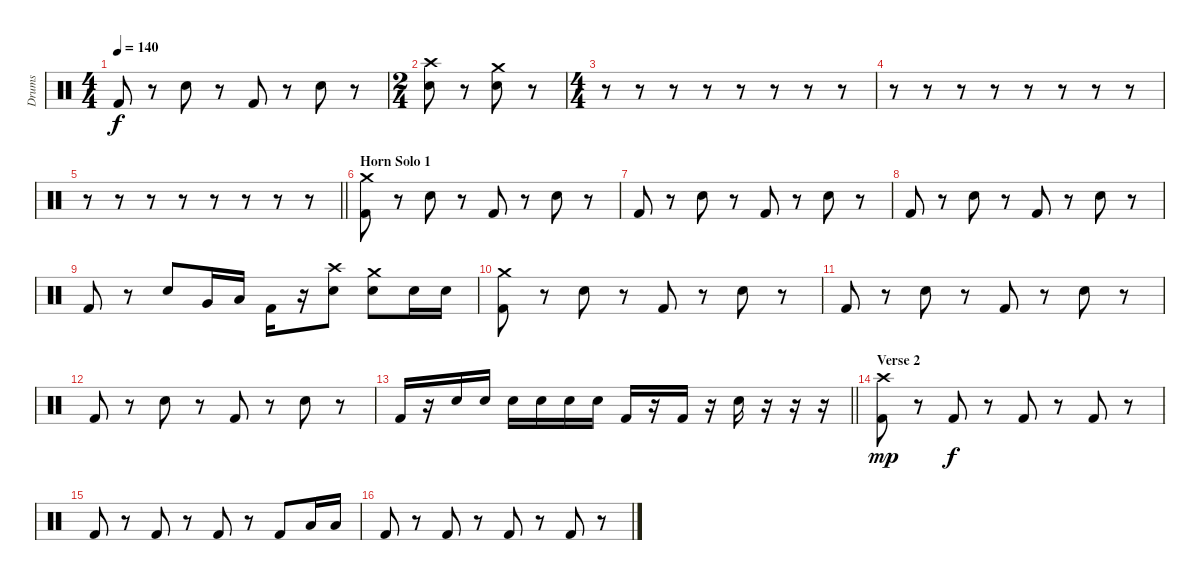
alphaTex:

\track ("Drums" "Drums") {instrument percussion}
\staff {score}
\articulation defaults
\ts (4 4)
\tempo 140
\clef neutral
\ks c "Kick (hit) 2".8{dy f}
r.8 "Snare (hit) 2".8 r.8 "Kick (hit) 2".8 r.8 "Snare (hit) 2".8 r.8 |
\ts (2 4)
("Crash high (hit)" "Snare (hit) 2").8 r.8 ("Crash medium (hit)" "Snare (hit) 2").8 r.8 |
\ts (4 4)
r.8 r.8 r.8 r.8 r.8 r.8 r.8 r.8 |
r.8 r.8 r.8 r.8 r.8 r.8 r.8 r.8 |
\barLineRight lightlight
r.8 r.8 r.8 r.8 r.8 r.8 r.8 r.8 |
\section ("" "Horn Solo 1")
("Crash medium (hit)" "Kick (hit) 2").8 r.8 "Snare (hit) 2".8 r.8 "Kick (hit) 2".8 r.8 "Snare (hit) 2".8 r.8 |
"Kick (hit) 2".8 r.8 "Snare (hit) 2".8 r.8 "Kick (hit) 2".8 r.8 "Snare (hit) 2".8 r.8 |
"Kick (hit) 2".8 r.8 "Snare (hit) 2".8 r.8 "Kick (hit) 2".8 r.8 "Snare (hit) 2".8 r.8 |
"Kick (hit) 2".8 r.8 "Snare (hit) 2".8 "Very Low Tom (hit)".16 "Low Floor Tom (hit)".16 "Kick (hit) 2".16 r.16 ("Crash high (hit)" "Snare (hit) 2").8 ("Crash medium (hit)" "Snare (hit) 2").8 "Snare (hit) 2".16 "Snare (hit) 2".16 |
("Crash medium (hit)" "Kick (hit) 2").8 r.8 "Snare (hit) 2".8 r.8 "Kick (hit) 2".8 r.8 "Snare (hit) 2".8 r.8 |
"Kick (hit) 2".8 r.8 "Snare (hit) 2".8 r.8 "Kick (hit) 2".8 r.8 "Snare (hit) 2".8 r.8 |
"Kick (hit) 2".8 r.8 "Snare (hit) 2".8 r.8 "Kick (hit) 2".8 r.8 "Snare (hit) 2".8 r.8 |
\barLineRight lightlight "Kick (hit) 2".16
r.16 "Snare (hit) 2".16 "Snare (hit) 2".16 "Snare (hit) 2".16 "Snare (hit) 2".16 "Snare (hit) 2".16 "Snare (hit) 2".16 "Kick (hit) 2".16 r.16 "Kick (hit) 2".16 r.16 "Snare (hit) 2".16 r.16 r.16 r.16 |
\section ("" "Verse 2")
("Crash high (hit)" "Kick (hit) 2").8{dy mp} r.8 "Kick (hit) 2".8{dy f} r.8 "Kick (hit) 2".8 r.8 "Kick (hit) 2".8 r.8 |
"Kick (hit) 2".8 r.8 "Kick (hit) 2".8 r.8 "Kick (hit) 2".8 r.8 "Kick (hit) 2".8 "Low Floor Tom (hit)".16 "Low Floor Tom (hit)".16 |
"Kick (hit) 2".8 r.8 "Kick (hit) 2".8 r.8 "Kick (hit) 2".8 r.8 "Kick (hit) 2".8 r.8
